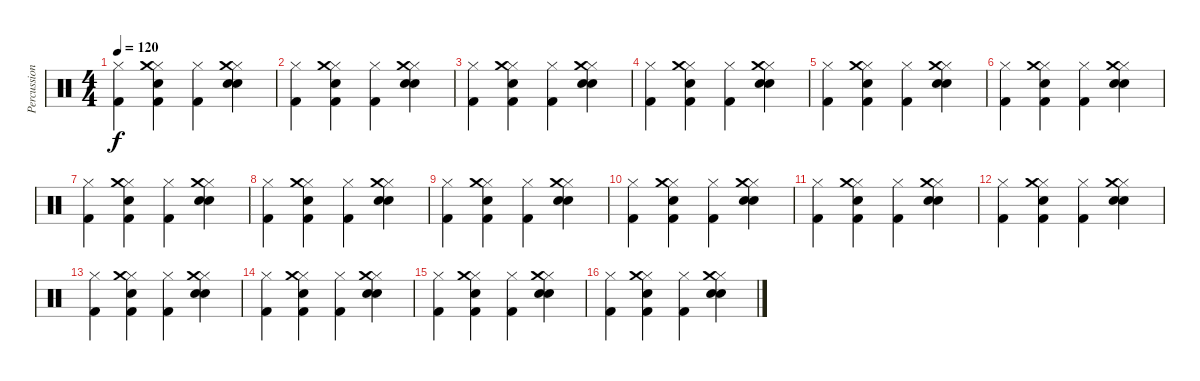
\track ("Percussion" "Percussion") {instrument percussion}
\staff {score}
\articulation defaults
\ts (4 4)
\tempo 120
\clef neutral
\ks c
("Hi-Hat (closed)" "Kick (hit) 2").4{dy f} ("Hi-Hat (closed)" "Snare (hit) 2" "Kick (hit) 2" "Crash medium (hit)").4 ("Hi-Hat (closed)" "Kick (hit) 2").4 ("Hi-Hat (closed)" "Snare (hit) 2" "Snare (hit) 2" "Crash medium (hit)").4 |
("Hi-Hat (closed)" "Kick (hit) 2").4 ("Hi-Hat (closed)" "Snare (hit) 2" "Kick (hit) 2" "Crash medium (hit)").4 ("Hi-Hat (closed)" "Kick (hit) 2").4 ("Hi-Hat (closed)" "Snare (hit) 2" "Snare (hit) 2" "Crash medium (hit)").4 |
("Hi-Hat (closed)" "Kick (hit) 2").4 ("Hi-Hat (closed)" "Snare (hit) 2" "Kick (hit) 2" "Crash medium (hit)").4 ("Hi-Hat (closed)" "Kick (hit) 2").4 ("Hi-Hat (closed)" "Snare (hit) 2" "Snare (hit) 2" "Crash medium (hit)").4 |
("Hi-Hat (closed)" "Kick (hit) 2").4 ("Hi-Hat (closed)" "Snare (hit) 2" "Kick (hit) 2" "Crash medium (hit)").4 ("Hi-Hat (closed)" "Kick (hit) 2").4 ("Hi-Hat (closed)" "Snare (hit) 2" "Snare (hit) 2" "Crash medium (hit)").4 |
("Hi-Hat (closed)" "Kick (hit) 2").4 ("Hi-Hat (closed)" "Snare (hit) 2" "Kick (hit) 2" "Crash medium (hit)").4 ("Hi-Hat (closed)" "Kick (hit) 2").4 ("Hi-Hat (closed)" "Snare (hit) 2" "Snare (hit) 2" "Crash medium (hit)").4 |
("Hi-Hat (closed)" "Kick (hit) 2").4 ("Hi-Hat (closed)" "Snare (hit) 2" "Kick (hit) 2" "Crash medium (hit)").4 ("Hi-Hat (closed)" "Kick (hit) 2").4 ("Hi-Hat (closed)" "Snare (hit) 2" "Snare (hit) 2" "Crash medium (hit)").4 |
("Hi-Hat (closed)" "Kick (hit) 2").4 ("Hi-Hat (closed)" "Snare (hit) 2" "Kick (hit) 2" "Crash medium (hit)").4 ("Hi-Hat (closed)" "Kick (hit) 2").4 ("Hi-Hat (closed)" "Snare (hit) 2" "Snare (hit) 2" "Crash medium (hit)").4 |
("Hi-Hat (closed)" "Kick (hit) 2").4 ("Hi-Hat (closed)" "Snare (hit) 2" "Kick (hit) 2" "Crash medium (hit)").4 ("Hi-Hat (closed)" "Kick (hit) 2").4 ("Hi-Hat (closed)" "Snare (hit) 2" "Snare (hit) 2" "Crash medium (hit)").4 |
("Hi-Hat (closed)" "Kick (hit) 2").4 ("Hi-Hat (closed)" "Snare (hit) 2" "Kick (hit) 2" "Crash medium (hit)").4 ("Hi-Hat (closed)" "Kick (hit) 2").4 ("Hi-Hat (closed)" "Snare (hit) 2" "Snare (hit) 2" "Crash medium (hit)").4 |
("Hi-Hat (closed)" "Kick (hit) 2").4 ("Hi-Hat (closed)" "Snare (hit) 2" "Kick (hit) 2" "Crash medium (hit)").4 ("Hi-Hat (closed)" "Kick (hit) 2").4 ("Hi-Hat (closed)" "Snare (hit) 2" "Snare (hit) 2" "Crash medium (hit)").4 |
("Hi-Hat (closed)" "Kick (hit) 2").4 ("Hi-Hat (closed)" "Snare (hit) 2" "Kick (hit) 2" "Crash medium (hit)").4 ("Hi-Hat (closed)" "Kick (hit) 2").4 ("Hi-Hat (closed)" "Snare (hit) 2" "Snare (hit) 2" "Crash medium (hit)").4 |
("Hi-Hat (closed)" "Kick (hit) 2").4 ("Hi-Hat (closed)" "Snare (hit) 2" "Kick (hit) 2" "Crash medium (hit)").4 ("Hi-Hat (closed)" "Kick (hit) 2").4 ("Hi-Hat (closed)" "Snare (hit) 2" "Snare (hit) 2" "Crash medium (hit)").4 |
("Hi-Hat (closed)" "Kick (hit) 2").4 ("Hi-Hat (closed)" "Snare (hit) 2" "Kick (hit) 2" "Crash medium (hit)").4 ("Hi-Hat (closed)" "Kick (hit) 2").4 ("Hi-Hat (closed)" "Snare (hit) 2" "Snare (hit) 2" "Crash medium (hit)").4 |
("Hi-Hat (closed)" "Kick (hit) 2").4 ("Hi-Hat (closed)" "Snare (hit) 2" "Kick (hit) 2" "Crash medium (hit)").4 ("Hi-Hat (closed)" "Kick (hit) 2").4 ("Hi-Hat (closed)" "Snare (hit) 2" "Snare (hit) 2" "Crash medium (hit)").4 |
("Hi-Hat (closed)" "Kick (hit) 2").4 ("Hi-Hat (closed)" "Snare (hit) 2" "Kick (hit) 2" "Crash medium (hit)").4 ("Hi-Hat (closed)" "Kick (hit) 2").4 ("Hi-Hat (closed)" "Snare (hit) 2" "Snare (hit) 2" "Crash medium (hit)").4 |
("Hi-Hat (closed)" "Kick (hit) 2").4 ("Hi-Hat (closed)" "Snare (hit) 2" "Kick (hit) 2" "Crash medium (hit)").4 ("Hi-Hat (closed)" "Kick (hit) 2").4 ("Hi-Hat (closed)" "Snare (hit) 2" "Snare (hit) 2" "Crash medium (hit)").4
